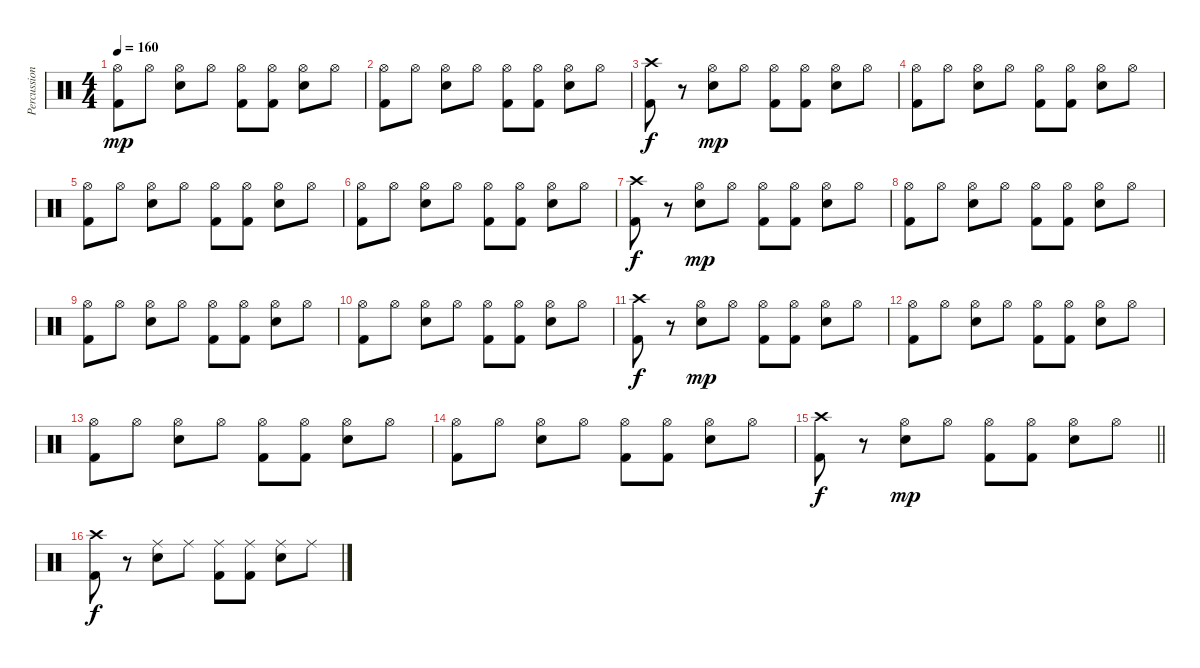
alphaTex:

\track ("Percussion - album" "Percussion") {mute instrument percussion}
\staff {score}
\articulation defaults
\ts (4 4)
\tempo 160
\clef neutral
\ks c
("Hi-Hat (open)" "Kick (hit) 2").8{dy mp} "Hi-Hat (open)".8 ("Hi-Hat (open)" "Snare (hit) 2").8 "Hi-Hat (open)".8 ("Hi-Hat (open)" "Kick (hit) 2").8 ("Hi-Hat (open)" "Kick (hit) 2").8 ("Hi-Hat (open)" "Snare (hit) 2").8 "Hi-Hat (open)".8 |
("Hi-Hat (open)" "Kick (hit) 2").8 "Hi-Hat (open)".8 ("Hi-Hat (open)" "Snare (hit) 2").8 "Hi-Hat (open)".8 ("Hi-Hat (open)" "Kick (hit) 2").8 ("Hi-Hat (open)" "Kick (hit) 2").8 ("Hi-Hat (open)" "Snare (hit) 2").8 "Hi-Hat (open)".8 |
("Crash high (hit)" "Kick (hit) 2").8{dy f} r.8 ("Hi-Hat (open)" "Snare (hit) 2").8{dy mp} "Hi-Hat (open)".8 ("Hi-Hat (open)" "Kick (hit) 2").8 ("Hi-Hat (open)" "Kick (hit) 2").8 ("Hi-Hat (open)" "Snare (hit) 2").8 "Hi-Hat (open)".8 |
("Hi-Hat (open)" "Kick (hit) 2").8 "Hi-Hat (open)".8 ("Hi-Hat (open)" "Snare (hit) 2").8 "Hi-Hat (open)".8 ("Hi-Hat (open)" "Kick (hit) 2").8 ("Hi-Hat (open)" "Kick (hit) 2").8 ("Hi-Hat (open)" "Snare (hit) 2").8 "Hi-Hat (open)".8 |
("Hi-Hat (open)" "Kick (hit) 2").8 "Hi-Hat (open)".8 ("Hi-Hat (open)" "Snare (hit) 2").8 "Hi-Hat (open)".8 ("Hi-Hat (open)" "Kick (hit) 2").8 ("Hi-Hat (open)" "Kick (hit) 2").8 ("Hi-Hat (open)" "Snare (hit) 2").8 "Hi-Hat (open)".8 |
("Hi-Hat (open)" "Kick (hit) 2").8 "Hi-Hat (open)".8 ("Hi-Hat (open)" "Snare (hit) 2").8 "Hi-Hat (open)".8 ("Hi-Hat (open)" "Kick (hit) 2").8 ("Hi-Hat (open)" "Kick (hit) 2").8 ("Hi-Hat (open)" "Snare (hit) 2").8 "Hi-Hat (open)".8 |
("Crash high (hit)" "Kick (hit) 2").8{dy f} r.8 ("Hi-Hat (open)" "Snare (hit) 2").8{dy mp} "Hi-Hat (open)".8 ("Hi-Hat (open)" "Kick (hit) 2").8 ("Hi-Hat (open)" "Kick (hit) 2").8 ("Hi-Hat (open)" "Snare (hit) 2").8 "Hi-Hat (open)".8 |
("Hi-Hat (open)" "Kick (hit) 2").8 "Hi-Hat (open)".8 ("Hi-Hat (open)" "Snare (hit) 2").8 "Hi-Hat (open)".8 ("Hi-Hat (open)" "Kick (hit) 2").8 ("Hi-Hat (open)" "Kick (hit) 2").8 ("Hi-Hat (open)" "Snare (hit) 2").8 "Hi-Hat (open)".8 |
("Hi-Hat (open)" "Kick (hit) 2").8 "Hi-Hat (open)".8 ("Hi-Hat (open)" "Snare (hit) 2").8 "Hi-Hat (open)".8 ("Hi-Hat (open)" "Kick (hit) 2").8 ("Hi-Hat (open)" "Kick (hit) 2").8 ("Hi-Hat (open)" "Snare (hit) 2").8 "Hi-Hat (open)".8 |
("Hi-Hat (open)" "Kick (hit) 2").8 "Hi-Hat (open)".8 ("Hi-Hat (open)" "Snare (hit) 2").8 "Hi-Hat (open)".8 ("Hi-Hat (open)" "Kick (hit) 2").8 ("Hi-Hat (open)" "Kick (hit) 2").8 ("Hi-Hat (open)" "Snare (hit) 2").8 "Hi-Hat (open)".8 |
("Crash high (hit)" "Kick (hit) 2").8{dy f} r.8 ("Hi-Hat (open)" "Snare (hit) 2").8{dy mp} "Hi-Hat (open)".8 ("Hi-Hat (open)" "Kick (hit) 2").8 ("Hi-Hat (open)" "Kick (hit) 2").8 ("Hi-Hat (open)" "Snare (hit) 2").8 "Hi-Hat (open)".8 |
("Hi-Hat (open)" "Kick (hit) 2").8 "Hi-Hat (open)".8 ("Hi-Hat (open)" "Snare (hit) 2").8 "Hi-Hat (open)".8 ("Hi-Hat (open)" "Kick (hit) 2").8 ("Hi-Hat (open)" "Kick (hit) 2").8 ("Hi-Hat (open)" "Snare (hit) 2").8 "Hi-Hat (open)".8 |
("Hi-Hat (open)" "Kick (hit) 2").8 "Hi-Hat (open)".8 ("Hi-Hat (open)" "Snare (hit) 2").8 "Hi-Hat (open)".8 ("Hi-Hat (open)" "Kick (hit) 2").8 ("Hi-Hat (open)" "Kick (hit) 2").8 ("Hi-Hat (open)" "Snare (hit) 2").8 "Hi-Hat (open)".8 |
("Hi-Hat (open)" "Kick (hit) 2").8 "Hi-Hat (open)".8 ("Hi-Hat (open)" "Snare (hit) 2").8 "Hi-Hat (open)".8 ("Hi-Hat (open)" "Kick (hit) 2").8 ("Hi-Hat (open)" "Kick (hit) 2").8 ("Hi-Hat (open)" "Snare (hit) 2").8 "Hi-Hat (open)".8 |
\barLineRight lightlight
("Crash high (hit)" "Kick (hit) 2").8{dy f} r.8 ("Hi-Hat (open)" "Snare (hit) 2").8{dy mp} "Hi-Hat (open)".8 ("Hi-Hat (open)" "Kick (hit) 2").8 ("Hi-Hat (open)" "Kick (hit) 2").8 ("Hi-Hat (open)" "Snare (hit) 2").8 "Hi-Hat (open)".8 |
("Crash high (hit)" "Kick (hit) 2").8{dy f} r.8 ("Ride (middle)" "Snare (hit) 2").8 "Ride (middle)".8 ("Ride (middle)" "Kick (hit) 2").8 ("Ride (middle)" "Kick (hit) 2").8 ("Ride (middle)" "Snare (hit) 2").8 "Ride (middle)".8
